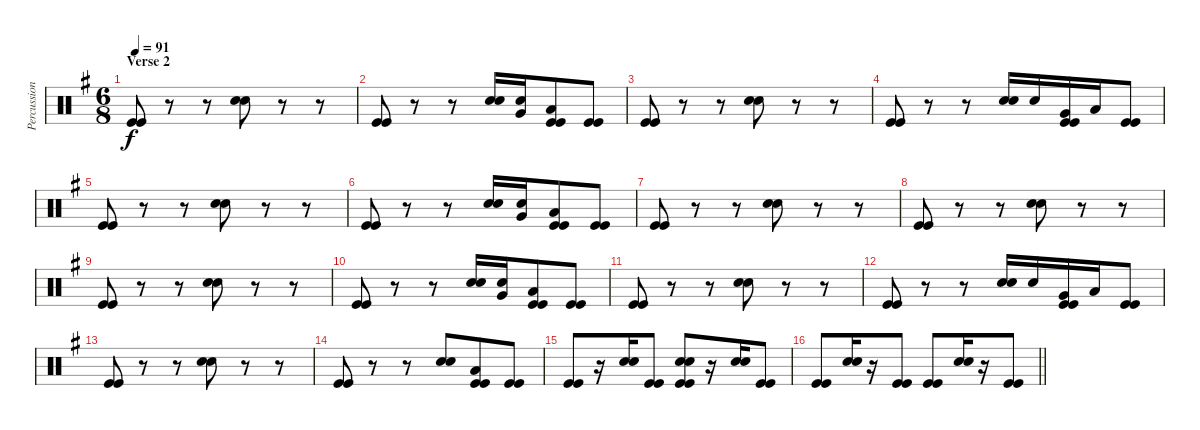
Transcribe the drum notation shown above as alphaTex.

\track ("Percussion (For Volume)" "Percussion") {instrument percussion}
\staff {score}
\articulation defaults
\ts (6 8)
\section ("" "Verse 2")
\tempo 91
\clef neutral
\ks eminor
("Kick (hit)" "Kick (hit)").8{dy f} r.8 r.8 ("Electric Snare (hit)" "Electric Snare (hit)").8 r.8 r.8 |
("Kick (hit)" "Kick (hit)").8 r.8 r.8 ("Electric Snare (hit)" "Electric Snare (hit)").16 ("Electric Snare (hit)" "Very Low Tom (hit)").16 ("Low Floor Tom (hit)" "Kick (hit)" "Kick (hit)").8 ("Kick (hit)" "Kick (hit)").8 |
("Kick (hit)" "Kick (hit)").8 r.8 r.8 ("Electric Snare (hit)" "Electric Snare (hit)").8 r.8 r.8 |
("Kick (hit)" "Kick (hit)").8 r.8 r.8 ("Electric Snare (hit)" "Electric Snare (hit)").16 "Electric Snare (hit)".16 ("Very Low Tom (hit)" "Kick (hit)" "Kick (hit)").16 "Low Floor Tom (hit)".16 ("Kick (hit)" "Kick (hit)").8 |
("Kick (hit)" "Kick (hit)").8 r.8 r.8 ("Electric Snare (hit)" "Electric Snare (hit)").8 r.8 r.8 |
("Kick (hit)" "Kick (hit)").8 r.8 r.8 ("Electric Snare (hit)" "Electric Snare (hit)").16 ("Electric Snare (hit)" "Very Low Tom (hit)").16 ("Low Floor Tom (hit)" "Kick (hit)" "Kick (hit)").8 ("Kick (hit)" "Kick (hit)").8 |
("Kick (hit)" "Kick (hit)").8 r.8 r.8 ("Electric Snare (hit)" "Electric Snare (hit)").8 r.8 r.8 |
("Kick (hit)" "Kick (hit)").8 r.8 r.8 ("Electric Snare (hit)" "Electric Snare (hit)").8 r.8 r.8 |
("Kick (hit)" "Kick (hit)").8 r.8 r.8 ("Electric Snare (hit)" "Electric Snare (hit)").8 r.8 r.8 |
("Kick (hit)" "Kick (hit)").8 r.8 r.8 ("Electric Snare (hit)" "Electric Snare (hit)").16 ("Electric Snare (hit)" "Very Low Tom (hit)").16 ("Low Floor Tom (hit)" "Kick (hit)" "Kick (hit)").8 ("Kick (hit)" "Kick (hit)").8 |
("Kick (hit)" "Kick (hit)").8 r.8 r.8 ("Electric Snare (hit)" "Electric Snare (hit)").8 r.8 r.8 |
("Kick (hit)" "Kick (hit)").8 r.8 r.8 ("Electric Snare (hit)" "Electric Snare (hit)").16 "Electric Snare (hit)".16 ("Very Low Tom (hit)" "Kick (hit)" "Kick (hit)").16 "Low Floor Tom (hit)".16 ("Kick (hit)" "Kick (hit)").8 |
("Kick (hit)" "Kick (hit)").8 r.8 r.8 ("Electric Snare (hit)" "Electric Snare (hit)").8 r.8 r.8 |
("Kick (hit)" "Kick (hit)").8 r.8 r.8 ("Electric Snare (hit)" "Electric Snare (hit)").8 ("Low Floor Tom (hit)" "Kick (hit)" "Kick (hit)").8 ("Kick (hit)" "Kick (hit)").8 |
("Kick (hit)" "Kick (hit)").8 r.16 ("Electric Snare (hit)" "Electric Snare (hit)").16 ("Kick (hit)" "Kick (hit)").8 ("Electric Snare (hit)" "Electric Snare (hit)" "Kick (hit)" "Kick (hit)").8 r.16 ("Electric Snare (hit)" "Electric Snare (hit)").16 ("Kick (hit)" "Kick (hit)").8 |
\barLineRight lightlight
("Kick (hit)" "Kick (hit)").8 ("Electric Snare (hit)" "Electric Snare (hit)").16 r.16 ("Kick (hit)" "Kick (hit)").8 ("Kick (hit)" "Kick (hit)").8 ("Electric Snare (hit)" "Electric Snare (hit)").16 r.16 ("Kick (hit)" "Kick (hit)").8
